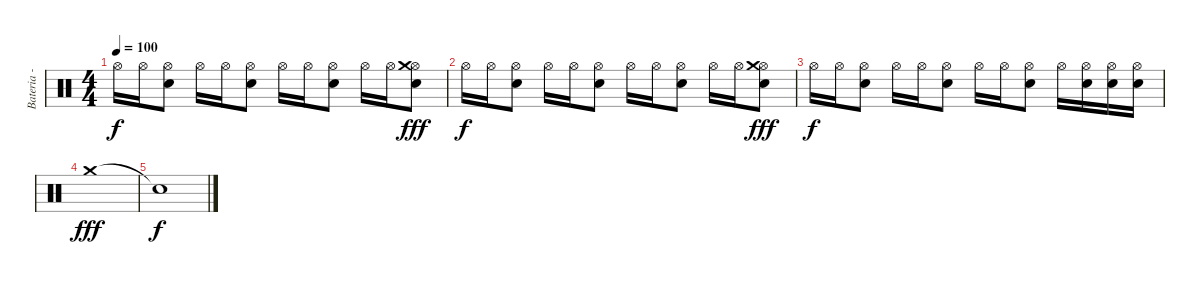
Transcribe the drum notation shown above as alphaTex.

\track ("Bateria - Larzon" "Bateria - ") {instrument percussion}
\staff {score}
\articulation defaults
\ts (4 4)
\tempo 100
\clef neutral
\ks c "Hi-Hat (open)".16{dy f} "Hi-Hat (open)".16
("Hi-Hat (open)" "Snare (hit) 2").8 "Hi-Hat (open)".16 "Hi-Hat (open)".16 ("Hi-Hat (open)" "Snare (hit) 2").8 "Hi-Hat (open)".16 "Hi-Hat (open)".16 ("Hi-Hat (open)" "Snare (hit) 2").8 "Hi-Hat (open)".16 "Hi-Hat (open)".16 ("Hi-Hat (open)" "Snare (hit) 2" "Crash medium (hit)").8{dy fff} |
"Hi-Hat (open)".16{dy f} "Hi-Hat (open)".16 ("Hi-Hat (open)" "Snare (hit) 2").8 "Hi-Hat (open)".16 "Hi-Hat (open)".16 ("Hi-Hat (open)" "Snare (hit) 2").8 "Hi-Hat (open)".16 "Hi-Hat (open)".16 ("Hi-Hat (open)" "Snare (hit) 2").8 "Hi-Hat (open)".16 "Hi-Hat (open)".16 ("Hi-Hat (open)" "Snare (hit) 2" "Crash medium (hit)").8{dy fff} |
"Hi-Hat (open)".16{dy f} "Hi-Hat (open)".16 ("Hi-Hat (open)" "Snare (hit) 2").8 "Hi-Hat (open)".16 "Hi-Hat (open)".16 ("Hi-Hat (open)" "Snare (hit) 2").8 "Hi-Hat (open)".16 "Hi-Hat (open)".16 ("Hi-Hat (open)" "Snare (hit) 2").8 "Hi-Hat (open)".16 ("Hi-Hat (open)" "Snare (hit) 2").16 ("Hi-Hat (open)" "Snare (hit) 2").16 ("Hi-Hat (open)" "Snare (hit) 2").16 |
"Crash medium (hit)".1{dy fff} |
"Snare (hit)"{t}.1{dy f}
